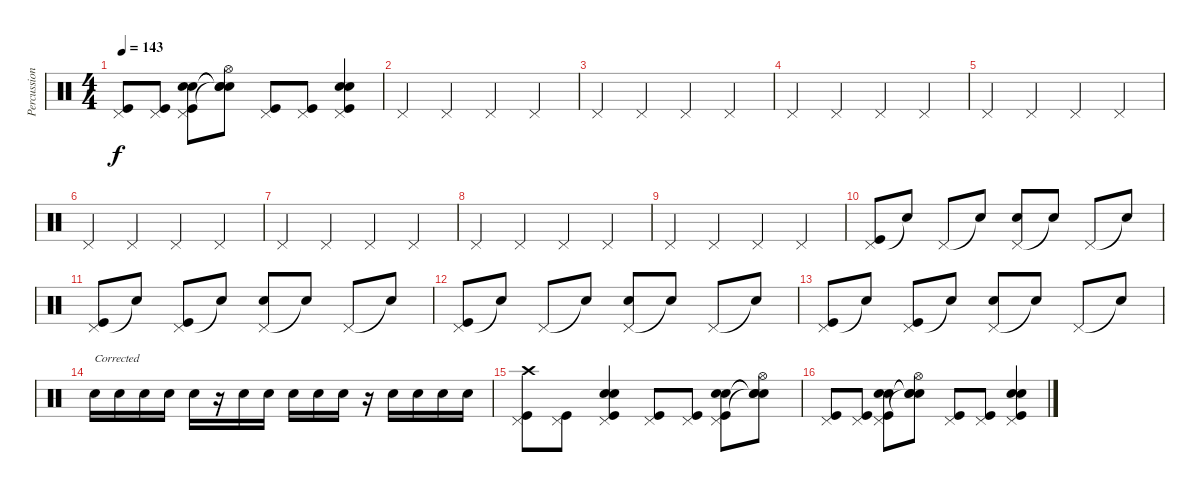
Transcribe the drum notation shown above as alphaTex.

\track ("Percussions" "Percussion") {instrument percussion}
\staff {score}
\articulation defaults
\ts (4 4)
\tempo 143
\clef neutral
\ks c
("Pedal Hi-Hat (hit)" "Kick (hit)").8{dy f} ("Pedal Hi-Hat (hit)" "Kick (hit)").8 ("Pedal Hi-Hat (hit)" "Snare (hit) 2" "Snare (hit) 2" "Kick (hit)").8 ("Hi-Hat (open)" "Snare (hit)"{t} "Snare (hit)"{t} "Snare (hit)"{t}).8 ("Pedal Hi-Hat (hit)" "Kick (hit)").8 ("Pedal Hi-Hat (hit)" "Kick (hit)").8 ("Pedal Hi-Hat (hit)" "Snare (hit) 2" "Snare (hit) 2" "Kick (hit)").4 |
"Pedal Hi-Hat (hit)".4 "Pedal Hi-Hat (hit)".4 "Pedal Hi-Hat (hit)".4 "Pedal Hi-Hat (hit)".4 |
"Pedal Hi-Hat (hit)".4 "Pedal Hi-Hat (hit)".4 "Pedal Hi-Hat (hit)".4 "Pedal Hi-Hat (hit)".4 |
"Pedal Hi-Hat (hit)".4 "Pedal Hi-Hat (hit)".4 "Pedal Hi-Hat (hit)".4 "Pedal Hi-Hat (hit)".4 |
"Pedal Hi-Hat (hit)".4 "Pedal Hi-Hat (hit)".4 "Pedal Hi-Hat (hit)".4 "Pedal Hi-Hat (hit)".4 |
"Pedal Hi-Hat (hit)".4 "Pedal Hi-Hat (hit)".4 "Pedal Hi-Hat (hit)".4 "Pedal Hi-Hat (hit)".4 |
"Pedal Hi-Hat (hit)".4 "Pedal Hi-Hat (hit)".4 "Pedal Hi-Hat (hit)".4 "Pedal Hi-Hat (hit)".4 |
"Pedal Hi-Hat (hit)".4 "Pedal Hi-Hat (hit)".4 "Pedal Hi-Hat (hit)".4 "Pedal Hi-Hat (hit)".4 |
"Pedal Hi-Hat (hit)".4 "Pedal Hi-Hat (hit)".4 "Pedal Hi-Hat (hit)".4 "Pedal Hi-Hat (hit)".4 |
("Pedal Hi-Hat (hit)" "Kick (hit)").8 "Snare (hit)"{t}.8 "Pedal Hi-Hat (hit)".8 "Snare (hit)"{t}.8 ("Pedal Hi-Hat (hit)" "Snare (hit) 2").8 "Snare (hit)"{t}.8 "Pedal Hi-Hat (hit)".8 "Snare (hit)"{t}.8 |
("Pedal Hi-Hat (hit)" "Kick (hit)").8 "Snare (hit)"{t}.8 ("Pedal Hi-Hat (hit)" "Kick (hit)").8 "Snare (hit)"{t}.8 ("Pedal Hi-Hat (hit)" "Snare (hit) 2").8 "Snare (hit)"{t}.8 "Pedal Hi-Hat (hit)".8 "Snare (hit)"{t}.8 |
("Pedal Hi-Hat (hit)" "Kick (hit)").8 "Snare (hit)"{t}.8 "Pedal Hi-Hat (hit)".8 "Snare (hit)"{t}.8 ("Pedal Hi-Hat (hit)" "Snare (hit) 2").8 "Snare (hit)"{t}.8 "Pedal Hi-Hat (hit)".8 "Snare (hit)"{t}.8 |
("Pedal Hi-Hat (hit)" "Kick (hit)").8 "Snare (hit)"{t}.8 ("Pedal Hi-Hat (hit)" "Kick (hit)").8 "Snare (hit)"{t}.8 ("Pedal Hi-Hat (hit)" "Snare (hit) 2").8 "Snare (hit)"{t}.8 "Pedal Hi-Hat (hit)".8 "Snare (hit)"{t}.8 |
"Snare (hit) 2".16{txt "Corrected"} "Snare (hit) 2".16 "Snare (hit) 2".16 "Snare (hit) 2".16 "Snare (hit) 2".16 r.16 "Snare (hit) 2".16 "Snare (hit) 2".16 "Snare (hit) 2".16 "Snare (hit) 2".16 "Snare (hit) 2".16 r.16 "Snare (hit) 2".16 "Snare (hit) 2".16 "Snare (hit) 2".16 "Snare (hit) 2".16 |
("Pedal Hi-Hat (hit)" "Crash high (hit)" "Kick (hit)").8 ("Pedal Hi-Hat (hit)" "Kick (hit)").8 ("Pedal Hi-Hat (hit)" "Snare (hit) 2" "Snare (hit) 2" "Kick (hit)").4 ("Pedal Hi-Hat (hit)" "Kick (hit)").8 ("Pedal Hi-Hat (hit)" "Kick (hit)").8 ("Pedal Hi-Hat (hit)" "Snare (hit) 2" "Snare (hit) 2" "Kick (hit)").8 ("Hi-Hat (open)" "Snare (hit)"{t} "Snare (hit)"{t} "Snare (hit)"{t}).8 |
("Pedal Hi-Hat (hit)" "Kick (hit)").8 ("Pedal Hi-Hat (hit)" "Kick (hit)").8 ("Pedal Hi-Hat (hit)" "Snare (hit) 2" "Snare (hit) 2" "Kick (hit)").8 ("Hi-Hat (open)" "Snare (hit)"{t} "Snare (hit)"{t} "Snare (hit)"{t}).8 ("Pedal Hi-Hat (hit)" "Kick (hit)").8 ("Pedal Hi-Hat (hit)" "Kick (hit)").8 ("Pedal Hi-Hat (hit)" "Snare (hit) 2" "Snare (hit) 2" "Kick (hit)").4
